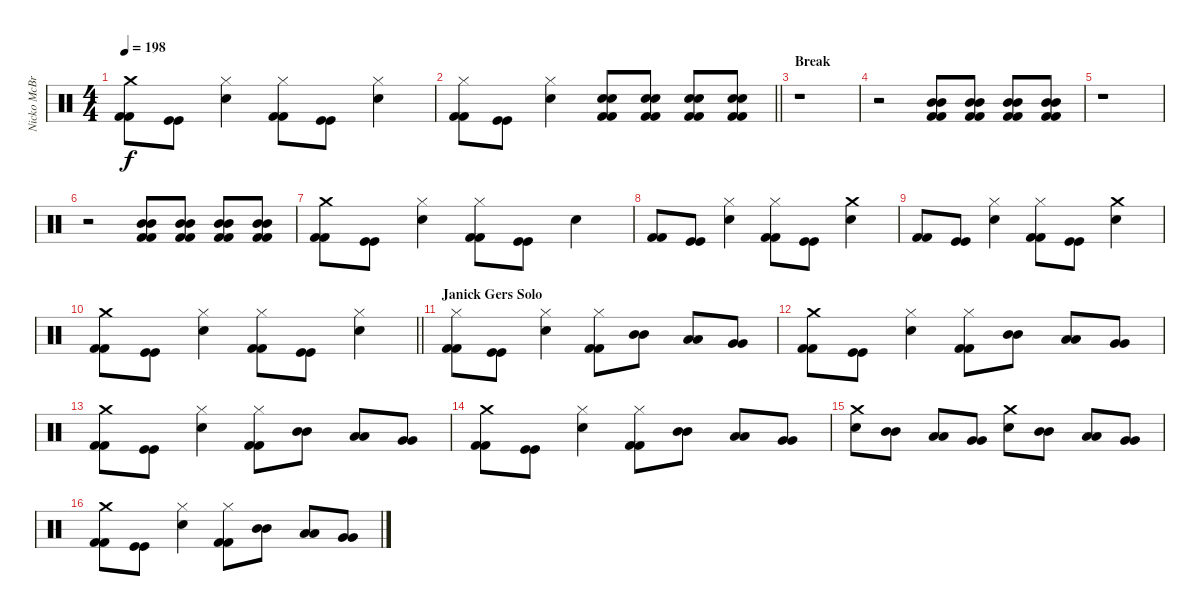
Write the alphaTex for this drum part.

\track ("Nicko McBrain" "Nicko McBr") {instrument percussion}
\staff {score}
\articulation defaults
\ts (4 4)
\tempo 198
\clef neutral
\ks c
("Crash medium (hit)" "Kick (hit) 2" "Kick (hit) 2").8{dy f} ("Kick (hit)" "Kick (hit)").8 ("Hi-Hat (closed)" "Electric Snare (hit)").4 ("Hi-Hat (closed)" "Kick (hit) 2" "Kick (hit) 2").8 ("Kick (hit)" "Kick (hit)").8 ("Hi-Hat (closed)" "Electric Snare (hit)").4 |
\barLineRight lightlight
("Hi-Hat (closed)" "Kick (hit) 2" "Kick (hit) 2").8 ("Kick (hit)" "Kick (hit)").8 ("Hi-Hat (closed)" "Electric Snare (hit)").4 ("Electric Snare (hit)" "Electric Snare (hit)" "Kick (hit) 2" "Kick (hit) 2").8 ("Electric Snare (hit)" "Electric Snare (hit)" "Kick (hit) 2" "Kick (hit) 2").8 ("Electric Snare (hit)" "Electric Snare (hit)" "Kick (hit) 2" "Kick (hit) 2").8 ("Electric Snare (hit)" "Electric Snare (hit)" "Kick (hit) 2" "Kick (hit) 2").8 |
\section ("" "Break")
r.1 |
r.2 ("Mid Tom (hit)" "Mid Tom (hit)" "Kick (hit) 2" "Kick (hit) 2").8 ("Mid Tom (hit)" "Mid Tom (hit)" "Kick (hit) 2" "Kick (hit) 2").8 ("Mid Tom (hit)" "Mid Tom (hit)" "Kick (hit) 2" "Kick (hit) 2").8 ("Mid Tom (hit)" "Mid Tom (hit)" "Kick (hit) 2" "Kick (hit) 2").8 |
r.1 |
r.2 ("Mid Tom (hit)" "Mid Tom (hit)" "Kick (hit) 2" "Kick (hit) 2").8 ("Mid Tom (hit)" "Mid Tom (hit)" "Kick (hit) 2" "Kick (hit) 2").8 ("Mid Tom (hit)" "Mid Tom (hit)" "Kick (hit) 2" "Kick (hit) 2").8 ("Mid Tom (hit)" "Mid Tom (hit)" "Kick (hit) 2" "Kick (hit) 2").8 |
("Crash medium (hit)" "Kick (hit) 2" "Kick (hit) 2").8 ("Kick (hit)" "Kick (hit)").8 ("Hi-Hat (closed)" "Electric Snare (hit)").4 ("Hi-Hat (closed)" "Kick (hit) 2" "Kick (hit) 2").8 ("Kick (hit)" "Kick (hit)").8 "Electric Snare (hit)".4 |
("Kick (hit) 2" "Kick (hit) 2").8 ("Kick (hit)" "Kick (hit)").8 ("Hi-Hat (closed)" "Electric Snare (hit)").4 ("Hi-Hat (closed)" "Kick (hit) 2" "Kick (hit) 2").8 ("Kick (hit)" "Kick (hit)").8 ("Crash medium (hit)" "Electric Snare (hit)").4 |
("Kick (hit) 2" "Kick (hit) 2").8 ("Kick (hit)" "Kick (hit)").8 ("Hi-Hat (closed)" "Electric Snare (hit)").4 ("Hi-Hat (closed)" "Kick (hit) 2" "Kick (hit) 2").8 ("Kick (hit)" "Kick (hit)").8 ("Crash medium (hit)" "Electric Snare (hit)").4 |
\barLineRight lightlight
("Crash medium (hit)" "Kick (hit) 2" "Kick (hit) 2").8 ("Kick (hit)" "Kick (hit)").8 ("Hi-Hat (closed)" "Electric Snare (hit)").4 ("Hi-Hat (closed)" "Kick (hit) 2" "Kick (hit) 2").8 ("Kick (hit)" "Kick (hit)").8 ("Hi-Hat (closed)" "Electric Snare (hit)").4 |
\section ("" "Janick Gers Solo")
("Hi-Hat (closed)" "Kick (hit) 2" "Kick (hit) 2").8 ("Kick (hit)" "Kick (hit)").8 ("Hi-Hat (closed)" "Electric Snare (hit)").4 ("Hi-Hat (closed)" "Kick (hit) 2" "Kick (hit) 2").8 ("Mid Tom (hit)" "Mid Tom (hit)").8 ("Low Tom (hit)" "Low Tom (hit)").8 ("Very Low Tom (hit)" "Very Low Tom (hit)").8 |
("Crash medium (hit)" "Kick (hit) 2" "Kick (hit) 2").8 ("Kick (hit)" "Kick (hit)").8 ("Hi-Hat (closed)" "Electric Snare (hit)").4 ("Hi-Hat (closed)" "Kick (hit) 2" "Kick (hit) 2").8 ("Mid Tom (hit)" "Mid Tom (hit)").8 ("Low Tom (hit)" "Low Tom (hit)").8 ("Very Low Tom (hit)" "Very Low Tom (hit)").8 |
("Crash medium (hit)" "Kick (hit) 2" "Kick (hit) 2").8 ("Kick (hit)" "Kick (hit)").8 ("Hi-Hat (closed)" "Electric Snare (hit)").4 ("Hi-Hat (closed)" "Kick (hit) 2" "Kick (hit) 2").8 ("Mid Tom (hit)" "Mid Tom (hit)").8 ("Low Tom (hit)" "Low Tom (hit)").8 ("Very Low Tom (hit)" "Very Low Tom (hit)").8 |
("Crash medium (hit)" "Kick (hit) 2" "Kick (hit) 2").8 ("Kick (hit)" "Kick (hit)").8 ("Hi-Hat (closed)" "Electric Snare (hit)").4 ("Hi-Hat (closed)" "Kick (hit) 2" "Kick (hit) 2").8 ("Mid Tom (hit)" "Mid Tom (hit)").8 ("Low Tom (hit)" "Low Tom (hit)").8 ("Very Low Tom (hit)" "Very Low Tom (hit)").8 |
("Crash medium (hit)" "Electric Snare (hit)").8 ("Mid Tom (hit)" "Mid Tom (hit)").8 ("Low Tom (hit)" "Low Tom (hit)").8 ("Very Low Tom (hit)" "Very Low Tom (hit)").8 ("Crash medium (hit)" "Electric Snare (hit)").8 ("Mid Tom (hit)" "Mid Tom (hit)").8 ("Low Tom (hit)" "Low Tom (hit)").8 ("Very Low Tom (hit)" "Very Low Tom (hit)").8 |
("Crash medium (hit)" "Kick (hit) 2" "Kick (hit) 2").8 ("Kick (hit)" "Kick (hit)").8 ("Hi-Hat (closed)" "Electric Snare (hit)").4 ("Hi-Hat (closed)" "Kick (hit) 2" "Kick (hit) 2").8 ("Mid Tom (hit)" "Mid Tom (hit)").8 ("Low Tom (hit)" "Low Tom (hit)").8 ("Very Low Tom (hit)" "Very Low Tom (hit)").8
